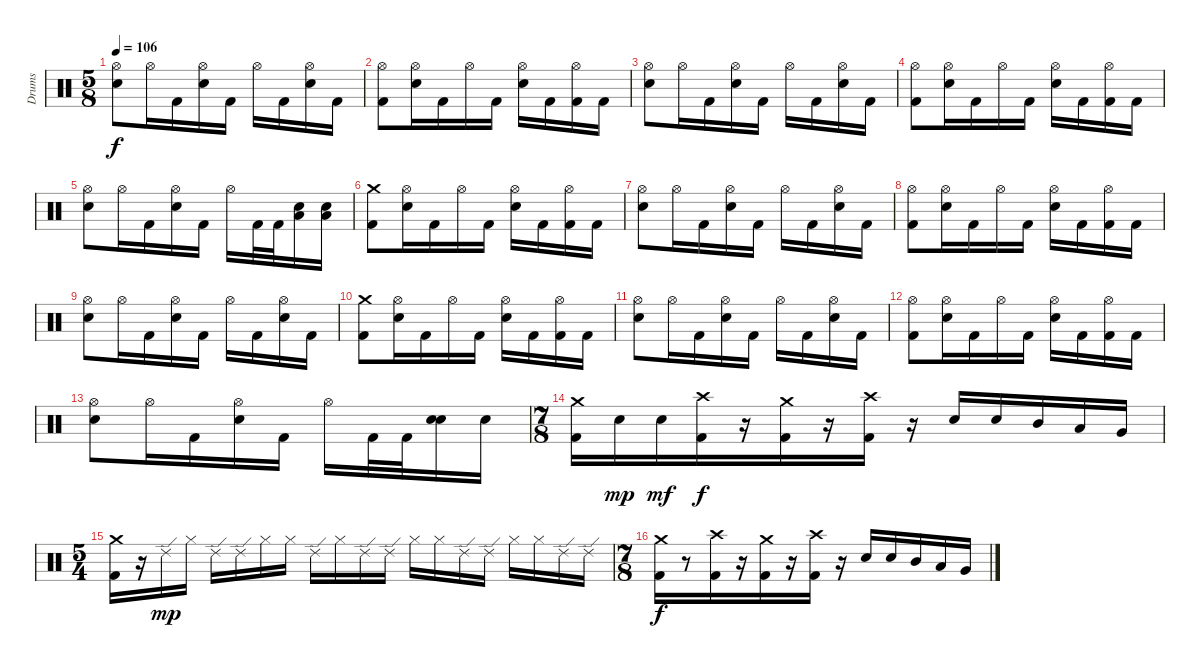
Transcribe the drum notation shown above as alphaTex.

\track ("Drums" "Drums") {instrument percussion}
\staff {score}
\articulation defaults
\ts (5 8)
\tempo 106
\clef neutral
\ks c
("Electric Snare (hit)" "Hi-Hat (open)").8{dy f} "Hi-Hat (open)".16 "Kick (hit) 2".16 ("Electric Snare (hit)" "Hi-Hat (open)").16 "Kick (hit) 2".16 "Hi-Hat (open)".16 "Kick (hit) 2".16 ("Electric Snare (hit)" "Hi-Hat (open)").16 "Kick (hit) 2".16 |
("Kick (hit) 2" "Hi-Hat (open)").8 ("Electric Snare (hit)" "Hi-Hat (open)").16 "Kick (hit) 2".16 "Hi-Hat (open)".16 "Kick (hit) 2".16 ("Electric Snare (hit)" "Hi-Hat (open)").16 "Kick (hit) 2".16 ("Kick (hit) 2" "Hi-Hat (open)").16 "Kick (hit) 2".16 |
("Electric Snare (hit)" "Hi-Hat (open)").8 "Hi-Hat (open)".16 "Kick (hit) 2".16 ("Electric Snare (hit)" "Hi-Hat (open)").16 "Kick (hit) 2".16 "Hi-Hat (open)".16 "Kick (hit) 2".16 ("Electric Snare (hit)" "Hi-Hat (open)").16 "Kick (hit) 2".16 |
("Kick (hit) 2" "Hi-Hat (open)").8 ("Electric Snare (hit)" "Hi-Hat (open)").16 "Kick (hit) 2".16 "Hi-Hat (open)".16 "Kick (hit) 2".16 ("Electric Snare (hit)" "Hi-Hat (open)").16 "Kick (hit) 2".16 ("Kick (hit) 2" "Hi-Hat (open)").16 "Kick (hit) 2".16 |
("Electric Snare (hit)" "Hi-Hat (open)").8 "Hi-Hat (open)".16 "Kick (hit) 2".16 ("Electric Snare (hit)" "Hi-Hat (open)").16 "Kick (hit) 2".16 "Hi-Hat (open)".16 "Kick (hit) 2".32 "Kick (hit) 2".32 ("Low Tom (hit)" "Electric Snare (hit)").16 ("Low Tom (hit)" "Electric Snare (hit)").16 |
("Kick (hit) 2" "Crash medium (hit)").8 ("Electric Snare (hit)" "Hi-Hat (open)").16 "Kick (hit) 2".16 "Hi-Hat (open)".16 "Kick (hit) 2".16 ("Electric Snare (hit)" "Hi-Hat (open)").16 "Kick (hit) 2".16 ("Kick (hit) 2" "Hi-Hat (open)").16 "Kick (hit) 2".16 |
("Electric Snare (hit)" "Hi-Hat (open)").8 "Hi-Hat (open)".16 "Kick (hit) 2".16 ("Electric Snare (hit)" "Hi-Hat (open)").16 "Kick (hit) 2".16 "Hi-Hat (open)".16 "Kick (hit) 2".16 ("Electric Snare (hit)" "Hi-Hat (open)").16 "Kick (hit) 2".16 |
("Kick (hit) 2" "Hi-Hat (open)").8 ("Electric Snare (hit)" "Hi-Hat (open)").16 "Kick (hit) 2".16 "Hi-Hat (open)".16 "Kick (hit) 2".16 ("Electric Snare (hit)" "Hi-Hat (open)").16 "Kick (hit) 2".16 ("Kick (hit) 2" "Hi-Hat (open)").16 "Kick (hit) 2".16 |
("Electric Snare (hit)" "Hi-Hat (open)").8 "Hi-Hat (open)".16 "Kick (hit) 2".16 ("Electric Snare (hit)" "Hi-Hat (open)").16 "Kick (hit) 2".16 "Hi-Hat (open)".16 "Kick (hit) 2".16 ("Electric Snare (hit)" "Hi-Hat (open)").16 "Kick (hit) 2".16 |
("Crash medium (hit)" "Kick (hit) 2").8 ("Electric Snare (hit)" "Hi-Hat (open)").16 "Kick (hit) 2".16 "Hi-Hat (open)".16 "Kick (hit) 2".16 ("Electric Snare (hit)" "Hi-Hat (open)").16 "Kick (hit) 2".16 ("Kick (hit) 2" "Hi-Hat (open)").16 "Kick (hit) 2".16 |
("Electric Snare (hit)" "Hi-Hat (open)").8 "Hi-Hat (open)".16 "Kick (hit) 2".16 ("Electric Snare (hit)" "Hi-Hat (open)").16 "Kick (hit) 2".16 "Hi-Hat (open)".16 "Kick (hit) 2".16 ("Electric Snare (hit)" "Hi-Hat (open)").16 "Kick (hit) 2".16 |
("Kick (hit) 2" "Hi-Hat (open)").8 ("Electric Snare (hit)" "Hi-Hat (open)").16 "Kick (hit) 2".16 "Hi-Hat (open)".16 "Kick (hit) 2".16 ("Electric Snare (hit)" "Hi-Hat (open)").16 "Kick (hit) 2".16 ("Kick (hit) 2" "Hi-Hat (open)").16 "Kick (hit) 2".16 |
("Electric Snare (hit)" "Hi-Hat (open)").8 "Hi-Hat (open)".16 "Kick (hit) 2".16 ("Electric Snare (hit)" "Hi-Hat (open)").16 "Kick (hit) 2".16 "Hi-Hat (open)".16 "Kick (hit) 2".32 "Kick (hit) 2".32 ("Electric Snare (hit)" "Electric Snare (hit)").16 "Electric Snare (hit)".16 |
\ts (7 8)
("Crash medium (hit)" "Kick (hit) 2").16 "Electric Snare (hit)".16{dy mp} "Electric Snare (hit)".16{dy mf} ("Crash high (hit)" "Kick (hit) 2").16{dy f} r.16 ("Crash medium (hit)" "Kick (hit) 2").16 r.16 ("Crash high (hit)" "Kick (hit) 2").16 r.16 "Electric Snare (hit)".16 "Electric Snare (hit)".16 "Mid Tom (hit)".16 "Low Tom (hit)".16 "Very Low Tom (hit)".16 |
\ts (5 4)
("Crash medium (hit)" "Kick (hit) 2").16 r.16 "Ride (edge) 2".16{dy mp} "Hi-Hat (closed)".16 "Ride (edge) 2".16 "Ride (edge) 2".16 "Hi-Hat (closed)".16 "Hi-Hat (closed)".16 "Ride (edge) 2".16 "Hi-Hat (closed)".16 "Ride (edge) 2".16 "Ride (edge) 2".16 "Hi-Hat (closed)".16 "Hi-Hat (closed)".16 "Ride (edge) 2".16 "Ride (edge) 2".16 "Hi-Hat (closed)".16 "Hi-Hat (closed)".16 "Ride (edge) 2".16 "Ride (edge) 2".16 |
\ts (7 8)
("Crash medium (hit)" "Kick (hit) 2").16{dy f} r.8 ("Crash high (hit)" "Kick (hit) 2").16 r.16 ("Crash medium (hit)" "Kick (hit) 2").16 r.16 ("Crash high (hit)" "Kick (hit) 2").16 r.16 "Electric Snare (hit)".16 "Electric Snare (hit)".16 "Mid Tom (hit)".16 "Low Tom (hit)".16 "Very Low Tom (hit)".16
